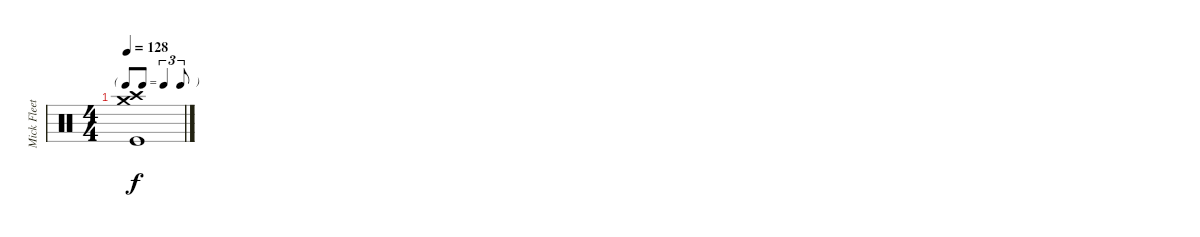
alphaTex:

\track ("Mick Fleetwood - Drums" "Mick Fleet") {instrument percussion}
\staff {score}
\articulation defaults
\ts (4 4)
\tf triplet8th
\tempo 128
\clef neutral
\ks c
("Crash medium (hit)" "Crash high (hit)" "Kick (hit)").1{dy f}
